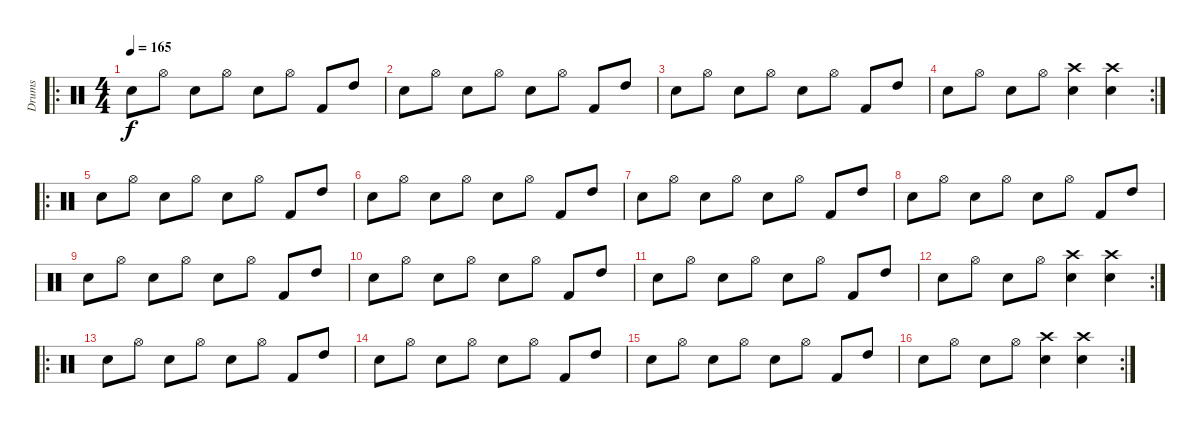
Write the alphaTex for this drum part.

\track ("Drums" "Drums") {instrument percussion}
\staff {score}
\articulation defaults
\ro
\ts (4 4)
\tempo 165
\clef neutral
\ks c "Snare (hit) 2".8{dy f} "Hi-Hat (open)".8 "Snare (hit) 2".8 "Hi-Hat (open)".8 "Snare (hit) 2".8 "Hi-Hat (open)".8 "Kick (hit) 2".8 "High Tom (hit)".8
|
"Snare (hit) 2".8 "Hi-Hat (open)".8 "Snare (hit) 2".8 "Hi-Hat (open)".8 "Snare (hit) 2".8 "Hi-Hat (open)".8 "Kick (hit) 2".8 "High Tom (hit)".8 |
"Snare (hit) 2".8 "Hi-Hat (open)".8 "Snare (hit) 2".8 "Hi-Hat (open)".8 "Snare (hit) 2".8 "Hi-Hat (open)".8 "Kick (hit) 2".8 "High Tom (hit)".8 |
\rc 2 "Snare (hit) 2".8 "Hi-Hat (open)".8 "Snare (hit) 2".8 "Hi-Hat (open)".8
("Electric Snare (hit)" "Crash high (hit)").4 ("Electric Snare (hit)" "Crash high (hit)").4 |
\ro "Snare (hit) 2".8 "Hi-Hat (open)".8 "Snare (hit) 2".8 "Hi-Hat (open)".8 "Snare (hit) 2".8 "Hi-Hat (open)".8 "Kick (hit) 2".8 "High Tom (hit)".8
|
"Snare (hit) 2".8 "Hi-Hat (open)".8 "Snare (hit) 2".8 "Hi-Hat (open)".8 "Snare (hit) 2".8 "Hi-Hat (open)".8 "Kick (hit) 2".8 "High Tom (hit)".8 |
"Snare (hit) 2".8 "Hi-Hat (open)".8 "Snare (hit) 2".8 "Hi-Hat (open)".8 "Snare (hit) 2".8 "Hi-Hat (open)".8 "Kick (hit) 2".8 "High Tom (hit)".8 |
"Snare (hit) 2".8 "Hi-Hat (open)".8 "Snare (hit) 2".8 "Hi-Hat (open)".8 "Snare (hit) 2".8 "Hi-Hat (open)".8 "Kick (hit) 2".8 "High Tom (hit)".8 |
"Snare (hit) 2".8 "Hi-Hat (open)".8 "Snare (hit) 2".8 "Hi-Hat (open)".8 "Snare (hit) 2".8 "Hi-Hat (open)".8 "Kick (hit) 2".8 "High Tom (hit)".8 |
"Snare (hit) 2".8 "Hi-Hat (open)".8 "Snare (hit) 2".8 "Hi-Hat (open)".8 "Snare (hit) 2".8 "Hi-Hat (open)".8 "Kick (hit) 2".8 "High Tom (hit)".8 |
"Snare (hit) 2".8 "Hi-Hat (open)".8 "Snare (hit) 2".8 "Hi-Hat (open)".8 "Snare (hit) 2".8 "Hi-Hat (open)".8 "Kick (hit) 2".8 "High Tom (hit)".8 |
\rc 2 "Snare (hit) 2".8 "Hi-Hat (open)".8 "Snare (hit) 2".8 "Hi-Hat (open)".8
("Electric Snare (hit)" "Crash high (hit)").4 ("Electric Snare (hit)" "Crash high (hit)").4 |
\ro "Snare (hit) 2".8 "Hi-Hat (open)".8 "Snare (hit) 2".8 "Hi-Hat (open)".8 "Snare (hit) 2".8 "Hi-Hat (open)".8 "Kick (hit) 2".8 "High Tom (hit)".8
|
"Snare (hit) 2".8 "Hi-Hat (open)".8 "Snare (hit) 2".8 "Hi-Hat (open)".8 "Snare (hit) 2".8 "Hi-Hat (open)".8 "Kick (hit) 2".8 "High Tom (hit)".8 |
"Snare (hit) 2".8 "Hi-Hat (open)".8 "Snare (hit) 2".8 "Hi-Hat (open)".8 "Snare (hit) 2".8 "Hi-Hat (open)".8 "Kick (hit) 2".8 "High Tom (hit)".8 |
\rc 2 "Snare (hit) 2".8 "Hi-Hat (open)".8 "Snare (hit) 2".8 "Hi-Hat (open)".8
("Electric Snare (hit)" "Crash high (hit)").4 ("Electric Snare (hit)" "Crash high (hit)").4
